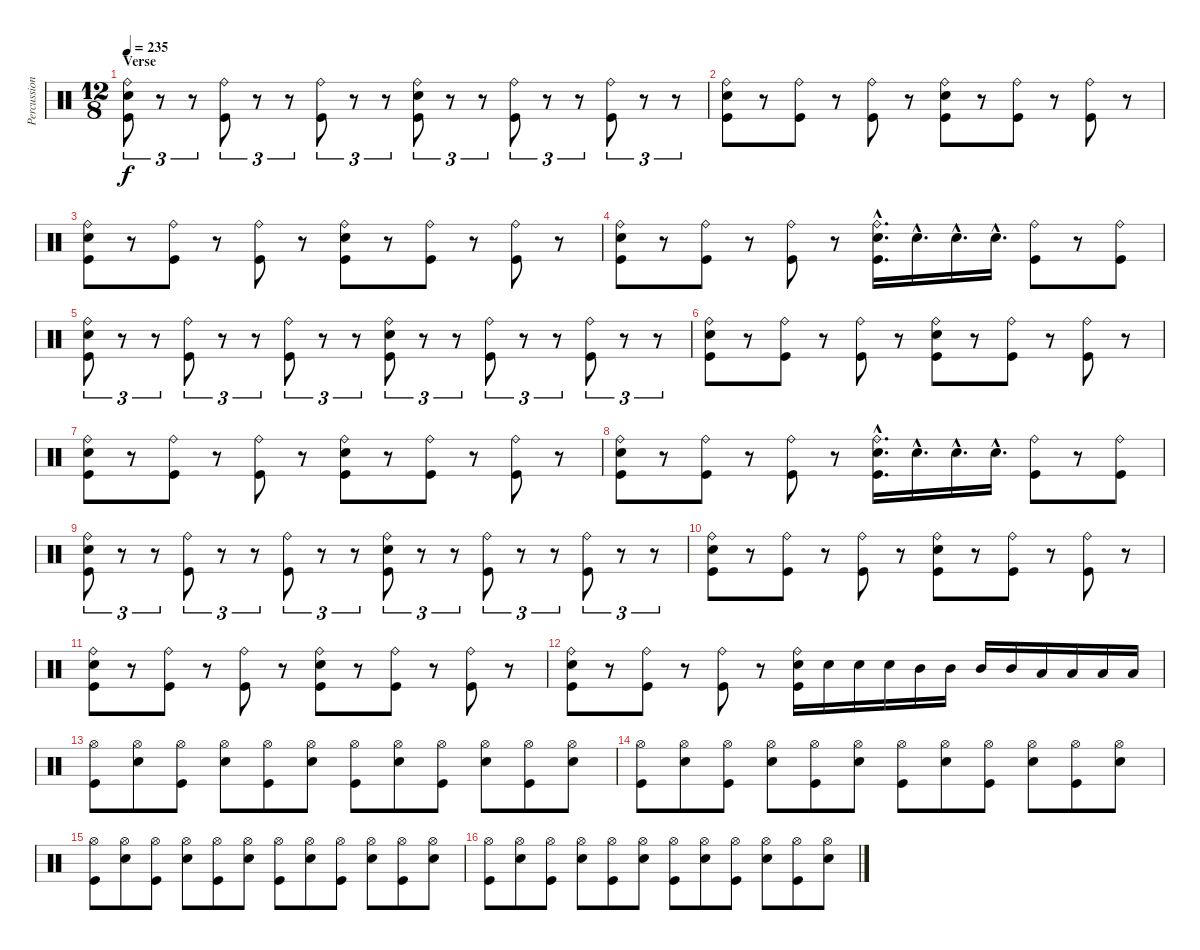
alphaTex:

\track ("Percussion" "Percussion") {instrument percussion}
\staff {score}
\articulation defaults
\ts (12 8)
\section ("" "Verse")
\tempo 235
\clef neutral
\ks c
("Ride (bell)" "Snare (hit) 2" "Kick (hit)").8{tu (3 2) dy f} r.8{tu (3 2)} r.8{tu (3 2)} ("Ride (bell)" "Kick (hit)").8{tu (3 2)} r.8{tu (3 2)} r.8{tu (3 2)} ("Ride (bell)" "Kick (hit)").8{tu (3 2)} r.8{tu (3 2)} r.8{tu (3 2)} ("Ride (bell)" "Snare (hit) 2" "Kick (hit)").8{tu (3 2)} r.8{tu (3 2)} r.8{tu (3 2)} ("Ride (bell)" "Kick (hit)").8{tu (3 2)} r.8{tu (3 2)} r.8{tu (3 2)} ("Ride (bell)" "Kick (hit)").8{tu (3 2)} r.8{tu (3 2)} r.8{tu (3 2)} |
("Ride (bell)" "Snare (hit) 2" "Kick (hit)").8 r.8 ("Ride (bell)" "Kick (hit)").8 r.8 ("Ride (bell)" "Kick (hit)").8 r.8 ("Ride (bell)" "Snare (hit) 2" "Kick (hit)").8 r.8 ("Ride (bell)" "Kick (hit)").8 r.8 ("Ride (bell)" "Kick (hit)").8 r.8 |
("Ride (bell)" "Snare (hit) 2" "Kick (hit)").8 r.8 ("Ride (bell)" "Kick (hit)").8 r.8 ("Ride (bell)" "Kick (hit)").8 r.8 ("Ride (bell)" "Snare (hit) 2" "Kick (hit)").8 r.8 ("Ride (bell)" "Kick (hit)").8 r.8 ("Ride (bell)" "Kick (hit)").8 r.8 |
("Ride (bell)" "Snare (hit) 2" "Kick (hit)").8 r.8 ("Ride (bell)" "Kick (hit)").8 r.8 ("Ride (bell)" "Kick (hit)").8 r.8 ("Ride (bell)"{hac} "Snare (hit) 2"{hac} "Kick (hit)"{hac}).16{d} "Snare (hit) 2"{hac}.16{d} "Snare (hit) 2"{hac}.16{d} "Snare (hit) 2"{hac}.16{d} ("Ride (bell)" "Kick (hit)").8 r.8 ("Ride (bell)" "Kick (hit)").8 |
("Ride (bell)" "Snare (hit) 2" "Kick (hit)").8{tu (3 2)} r.8{tu (3 2)} r.8{tu (3 2)} ("Ride (bell)" "Kick (hit)").8{tu (3 2)} r.8{tu (3 2)} r.8{tu (3 2)} ("Ride (bell)" "Kick (hit)").8{tu (3 2)} r.8{tu (3 2)} r.8{tu (3 2)} ("Ride (bell)" "Snare (hit) 2" "Kick (hit)").8{tu (3 2)} r.8{tu (3 2)} r.8{tu (3 2)} ("Ride (bell)" "Kick (hit)").8{tu (3 2)} r.8{tu (3 2)} r.8{tu (3 2)} ("Ride (bell)" "Kick (hit)").8{tu (3 2)} r.8{tu (3 2)} r.8{tu (3 2)} |
("Ride (bell)" "Snare (hit) 2" "Kick (hit)").8 r.8 ("Ride (bell)" "Kick (hit)").8 r.8 ("Ride (bell)" "Kick (hit)").8 r.8 ("Ride (bell)" "Snare (hit) 2" "Kick (hit)").8 r.8 ("Ride (bell)" "Kick (hit)").8 r.8 ("Ride (bell)" "Kick (hit)").8 r.8 |
("Ride (bell)" "Snare (hit) 2" "Kick (hit)").8 r.8 ("Ride (bell)" "Kick (hit)").8 r.8 ("Ride (bell)" "Kick (hit)").8 r.8 ("Ride (bell)" "Snare (hit) 2" "Kick (hit)").8 r.8 ("Ride (bell)" "Kick (hit)").8 r.8 ("Ride (bell)" "Kick (hit)").8 r.8 |
("Ride (bell)" "Snare (hit) 2" "Kick (hit)").8 r.8 ("Ride (bell)" "Kick (hit)").8 r.8 ("Ride (bell)" "Kick (hit)").8 r.8 ("Ride (bell)"{hac} "Snare (hit) 2"{hac} "Kick (hit)"{hac}).16{d} "Snare (hit) 2"{hac}.16{d} "Snare (hit) 2"{hac}.16{d} "Snare (hit) 2"{hac}.16{d} ("Ride (bell)" "Kick (hit)").8 r.8 ("Ride (bell)" "Kick (hit)").8 |
("Ride (bell)" "Snare (hit) 2" "Kick (hit)").8{tu (3 2)} r.8{tu (3 2)} r.8{tu (3 2)} ("Ride (bell)" "Kick (hit)").8{tu (3 2)} r.8{tu (3 2)} r.8{tu (3 2)} ("Ride (bell)" "Kick (hit)").8{tu (3 2)} r.8{tu (3 2)} r.8{tu (3 2)} ("Ride (bell)" "Snare (hit) 2" "Kick (hit)").8{tu (3 2)} r.8{tu (3 2)} r.8{tu (3 2)} ("Ride (bell)" "Kick (hit)").8{tu (3 2)} r.8{tu (3 2)} r.8{tu (3 2)} ("Ride (bell)" "Kick (hit)").8{tu (3 2)} r.8{tu (3 2)} r.8{tu (3 2)} |
("Ride (bell)" "Snare (hit) 2" "Kick (hit)").8 r.8 ("Ride (bell)" "Kick (hit)").8 r.8 ("Ride (bell)" "Kick (hit)").8 r.8 ("Ride (bell)" "Snare (hit) 2" "Kick (hit)").8 r.8 ("Ride (bell)" "Kick (hit)").8 r.8 ("Ride (bell)" "Kick (hit)").8 r.8 |
("Ride (bell)" "Snare (hit) 2" "Kick (hit)").8 r.8 ("Ride (bell)" "Kick (hit)").8 r.8 ("Ride (bell)" "Kick (hit)").8 r.8 ("Ride (bell)" "Snare (hit) 2" "Kick (hit)").8 r.8 ("Ride (bell)" "Kick (hit)").8 r.8 ("Ride (bell)" "Kick (hit)").8 r.8 |
("Ride (bell)" "Snare (hit) 2" "Kick (hit)").8 r.8 ("Ride (bell)" "Kick (hit)").8 r.8 ("Ride (bell)" "Kick (hit)").8 r.8 ("Ride (bell)" "Snare (hit) 2" "Kick (hit)").16 "Snare (hit) 2".16 "Snare (hit) 2".16 "Snare (hit) 2".16 "Mid Tom (hit)".16 "Mid Tom (hit)".16 "Mid Tom (hit)".16 "Mid Tom (hit)".16 "Low Tom (hit)".16 "Low Tom (hit)".16 "Low Tom (hit)".16 "Low Tom (hit)".16 |
("Hi-Hat (open)" "Kick (hit)").8 ("Hi-Hat (open)" "Snare (hit) 2").8 ("Hi-Hat (open)" "Kick (hit)").8 ("Hi-Hat (open)" "Snare (hit) 2").8 ("Hi-Hat (open)" "Kick (hit)").8 ("Hi-Hat (open)" "Snare (hit) 2").8 ("Hi-Hat (open)" "Kick (hit)").8 ("Hi-Hat (open)" "Snare (hit) 2").8 ("Hi-Hat (open)" "Kick (hit)").8 ("Hi-Hat (open)" "Snare (hit) 2").8 ("Hi-Hat (open)" "Kick (hit)").8 ("Hi-Hat (open)" "Snare (hit) 2").8 |
("Hi-Hat (open)" "Kick (hit)").8 ("Hi-Hat (open)" "Snare (hit) 2").8 ("Hi-Hat (open)" "Kick (hit)").8 ("Hi-Hat (open)" "Snare (hit) 2").8 ("Hi-Hat (open)" "Kick (hit)").8 ("Hi-Hat (open)" "Snare (hit) 2").8 ("Hi-Hat (open)" "Kick (hit)").8 ("Hi-Hat (open)" "Snare (hit) 2").8 ("Hi-Hat (open)" "Kick (hit)").8 ("Hi-Hat (open)" "Snare (hit) 2").8 ("Hi-Hat (open)" "Kick (hit)").8 ("Hi-Hat (open)" "Snare (hit) 2").8 |
("Hi-Hat (open)" "Kick (hit)").8 ("Hi-Hat (open)" "Snare (hit) 2").8 ("Hi-Hat (open)" "Kick (hit)").8 ("Hi-Hat (open)" "Snare (hit) 2").8 ("Hi-Hat (open)" "Kick (hit)").8 ("Hi-Hat (open)" "Snare (hit) 2").8 ("Hi-Hat (open)" "Kick (hit)").8 ("Hi-Hat (open)" "Snare (hit) 2").8 ("Hi-Hat (open)" "Kick (hit)").8 ("Hi-Hat (open)" "Snare (hit) 2").8 ("Hi-Hat (open)" "Kick (hit)").8 ("Hi-Hat (open)" "Snare (hit) 2").8 |
("Hi-Hat (open)" "Kick (hit)").8 ("Hi-Hat (open)" "Snare (hit) 2").8 ("Hi-Hat (open)" "Kick (hit)").8 ("Hi-Hat (open)" "Snare (hit) 2").8 ("Hi-Hat (open)" "Kick (hit)").8 ("Hi-Hat (open)" "Snare (hit) 2").8 ("Hi-Hat (open)" "Kick (hit)").8 ("Hi-Hat (open)" "Snare (hit) 2").8 ("Hi-Hat (open)" "Kick (hit)").8 ("Hi-Hat (open)" "Snare (hit) 2").8 ("Hi-Hat (open)" "Kick (hit)").8 ("Hi-Hat (open)" "Snare (hit) 2").8
